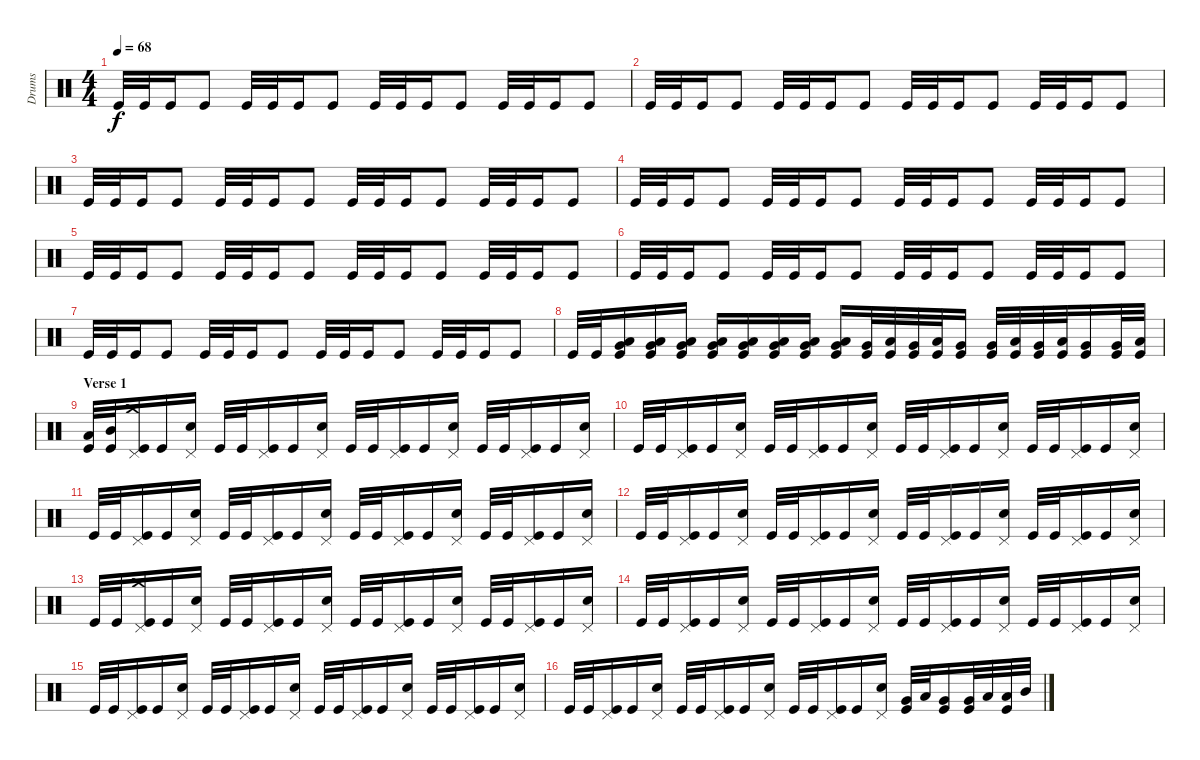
\track ("Drums" "Drums") {instrument percussion}
\staff {score}
\articulation defaults
\ts (4 4)
\tempo 68
\clef neutral
\ks c "Kick (hit)".32{dy f} "Kick (hit)".32 "Kick (hit)".16 "Kick (hit)".8 "Kick (hit)".32 "Kick (hit)".32 "Kick (hit)".16 "Kick (hit)".8 "Kick (hit)".32 "Kick (hit)".32 "Kick (hit)".16 "Kick (hit)".8 "Kick (hit)".32 "Kick (hit)".32 "Kick (hit)".16 "Kick (hit)".8
|
"Kick (hit)".32 "Kick (hit)".32 "Kick (hit)".16 "Kick (hit)".8 "Kick (hit)".32 "Kick (hit)".32 "Kick (hit)".16 "Kick (hit)".8 "Kick (hit)".32 "Kick (hit)".32 "Kick (hit)".16 "Kick (hit)".8 "Kick (hit)".32 "Kick (hit)".32 "Kick (hit)".16 "Kick (hit)".8 |
"Kick (hit)".32 "Kick (hit)".32 "Kick (hit)".16 "Kick (hit)".8 "Kick (hit)".32 "Kick (hit)".32 "Kick (hit)".16 "Kick (hit)".8 "Kick (hit)".32 "Kick (hit)".32 "Kick (hit)".16 "Kick (hit)".8 "Kick (hit)".32 "Kick (hit)".32 "Kick (hit)".16 "Kick (hit)".8 |
"Kick (hit)".32 "Kick (hit)".32 "Kick (hit)".16 "Kick (hit)".8 "Kick (hit)".32 "Kick (hit)".32 "Kick (hit)".16 "Kick (hit)".8 "Kick (hit)".32 "Kick (hit)".32 "Kick (hit)".16 "Kick (hit)".8 "Kick (hit)".32 "Kick (hit)".32 "Kick (hit)".16 "Kick (hit)".8 |
"Kick (hit)".32 "Kick (hit)".32 "Kick (hit)".16 "Kick (hit)".8 "Kick (hit)".32 "Kick (hit)".32 "Kick (hit)".16 "Kick (hit)".8 "Kick (hit)".32 "Kick (hit)".32 "Kick (hit)".16 "Kick (hit)".8 "Kick (hit)".32 "Kick (hit)".32 "Kick (hit)".16 "Kick (hit)".8 |
"Kick (hit)".32 "Kick (hit)".32 "Kick (hit)".16 "Kick (hit)".8 "Kick (hit)".32 "Kick (hit)".32 "Kick (hit)".16 "Kick (hit)".8 "Kick (hit)".32 "Kick (hit)".32 "Kick (hit)".16 "Kick (hit)".8 "Kick (hit)".32 "Kick (hit)".32 "Kick (hit)".16 "Kick (hit)".8 |
"Kick (hit)".32 "Kick (hit)".32 "Kick (hit)".16 "Kick (hit)".8 "Kick (hit)".32 "Kick (hit)".32 "Kick (hit)".16 "Kick (hit)".8 "Kick (hit)".32 "Kick (hit)".32 "Kick (hit)".16 "Kick (hit)".8 "Kick (hit)".32 "Kick (hit)".32 "Kick (hit)".16 "Kick (hit)".8 |
"Kick (hit)".32 "Kick (hit)".32 ("Low Tom (hit)" "Very Low Tom (hit)" "Kick (hit)").16 ("Low Tom (hit)" "Very Low Tom (hit)" "Kick (hit)").16 ("Low Tom (hit)" "Very Low Tom (hit)" "Kick (hit)").16 ("Low Tom (hit)" "Very Low Tom (hit)" "Kick (hit)").16 ("Low Tom (hit)" "Very Low Tom (hit)" "Kick (hit)").16 ("Low Tom (hit)" "Very Low Tom (hit)" "Kick (hit)").16 ("Low Tom (hit)" "Very Low Tom (hit)" "Kick (hit)").16 ("Low Tom (hit)" "Very Low Tom (hit)" "Kick (hit)").16 ("Very Low Tom (hit)" "Kick (hit)").32 ("Low Tom (hit)" "Kick (hit)").32 ("Very Low Tom (hit)" "Kick (hit)").32 ("Low Tom (hit)" "Kick (hit)").32 ("Very Low Tom (hit)" "Kick (hit)").16 ("Very Low Tom (hit)" "Kick (hit)").32 ("Low Tom (hit)" "Kick (hit)").32 ("Very Low Tom (hit)" "Kick (hit)").32 ("Low Tom (hit)" "Kick (hit)").32 ("Very Low Tom (hit)" "Kick (hit)").16 ("Very Low Tom (hit)" "Kick (hit)").32 ("Low Tom (hit)" "Kick (hit)").32 |
\section ("" "Verse 1")
("Low Tom (hit)" "Kick (hit)").32 ("Mid Tom (hit)" "Kick (hit)").32 ("Crash medium (hit)" "Pedal Hi-Hat (hit)" "Kick (hit)").16 "Kick (hit)".16 ("Pedal Hi-Hat (hit)" "Snare (hit) 2").16 "Kick (hit)".32 "Kick (hit)".32 ("Pedal Hi-Hat (hit)" "Kick (hit)").16 "Kick (hit)".16 ("Pedal Hi-Hat (hit)" "Snare (hit) 2").16 "Kick (hit)".32 "Kick (hit)".32 ("Pedal Hi-Hat (hit)" "Kick (hit)").16 "Kick (hit)".16 ("Pedal Hi-Hat (hit)" "Snare (hit) 2").16 "Kick (hit)".32 "Kick (hit)".32 ("Pedal Hi-Hat (hit)" "Kick (hit)").16 "Kick (hit)".16 ("Pedal Hi-Hat (hit)" "Snare (hit) 2").16 |
"Kick (hit)".32 "Kick (hit)".32 ("Pedal Hi-Hat (hit)" "Kick (hit)").16 "Kick (hit)".16 ("Pedal Hi-Hat (hit)" "Snare (hit) 2").16 "Kick (hit)".32 "Kick (hit)".32 ("Pedal Hi-Hat (hit)" "Kick (hit)").16 "Kick (hit)".16 ("Pedal Hi-Hat (hit)" "Snare (hit) 2").16 "Kick (hit)".32 "Kick (hit)".32 ("Pedal Hi-Hat (hit)" "Kick (hit)").16 "Kick (hit)".16 ("Pedal Hi-Hat (hit)" "Snare (hit) 2").16 "Kick (hit)".32 "Kick (hit)".32 ("Pedal Hi-Hat (hit)" "Kick (hit)").16 "Kick (hit)".16 ("Pedal Hi-Hat (hit)" "Snare (hit) 2").16 |
"Kick (hit)".32 "Kick (hit)".32 ("Pedal Hi-Hat (hit)" "Kick (hit)").16 "Kick (hit)".16 ("Pedal Hi-Hat (hit)" "Snare (hit) 2").16 "Kick (hit)".32 "Kick (hit)".32 ("Pedal Hi-Hat (hit)" "Kick (hit)").16 "Kick (hit)".16 ("Pedal Hi-Hat (hit)" "Snare (hit) 2").16 "Kick (hit)".32 "Kick (hit)".32 ("Pedal Hi-Hat (hit)" "Kick (hit)").16 "Kick (hit)".16 ("Pedal Hi-Hat (hit)" "Snare (hit) 2").16 "Kick (hit)".32 "Kick (hit)".32 ("Pedal Hi-Hat (hit)" "Kick (hit)").16 "Kick (hit)".16 ("Pedal Hi-Hat (hit)" "Snare (hit) 2").16 |
"Kick (hit)".32 "Kick (hit)".32 ("Pedal Hi-Hat (hit)" "Kick (hit)").16 "Kick (hit)".16 ("Pedal Hi-Hat (hit)" "Snare (hit) 2").16 "Kick (hit)".32 "Kick (hit)".32 ("Pedal Hi-Hat (hit)" "Kick (hit)").16 "Kick (hit)".16 ("Pedal Hi-Hat (hit)" "Snare (hit) 2").16 "Kick (hit)".32 "Kick (hit)".32 ("Pedal Hi-Hat (hit)" "Kick (hit)").16 "Kick (hit)".16 ("Pedal Hi-Hat (hit)" "Snare (hit) 2").16 "Kick (hit)".32 "Kick (hit)".32 ("Pedal Hi-Hat (hit)" "Kick (hit)").16 "Kick (hit)".16 ("Pedal Hi-Hat (hit)" "Snare (hit) 2").16 |
"Kick (hit)".32 "Kick (hit)".32 ("Crash medium (hit)" "Pedal Hi-Hat (hit)" "Kick (hit)").16 "Kick (hit)".16 ("Pedal Hi-Hat (hit)" "Snare (hit) 2").16 "Kick (hit)".32 "Kick (hit)".32 ("Pedal Hi-Hat (hit)" "Kick (hit)").16 "Kick (hit)".16 ("Pedal Hi-Hat (hit)" "Snare (hit) 2").16 "Kick (hit)".32 "Kick (hit)".32 ("Pedal Hi-Hat (hit)" "Kick (hit)").16 "Kick (hit)".16 ("Pedal Hi-Hat (hit)" "Snare (hit) 2").16 "Kick (hit)".32 "Kick (hit)".32 ("Pedal Hi-Hat (hit)" "Kick (hit)").16 "Kick (hit)".16 ("Pedal Hi-Hat (hit)" "Snare (hit) 2").16 |
"Kick (hit)".32 "Kick (hit)".32 ("Pedal Hi-Hat (hit)" "Kick (hit)").16 "Kick (hit)".16 ("Pedal Hi-Hat (hit)" "Snare (hit) 2").16 "Kick (hit)".32 "Kick (hit)".32 ("Pedal Hi-Hat (hit)" "Kick (hit)").16 "Kick (hit)".16 ("Pedal Hi-Hat (hit)" "Snare (hit) 2").16 "Kick (hit)".32 "Kick (hit)".32 ("Pedal Hi-Hat (hit)" "Kick (hit)").16 "Kick (hit)".16 ("Pedal Hi-Hat (hit)" "Snare (hit) 2").16 "Kick (hit)".32 "Kick (hit)".32 ("Pedal Hi-Hat (hit)" "Kick (hit)").16 "Kick (hit)".16 ("Pedal Hi-Hat (hit)" "Snare (hit) 2").16 |
"Kick (hit)".32 "Kick (hit)".32 ("Pedal Hi-Hat (hit)" "Kick (hit)").16 "Kick (hit)".16 ("Pedal Hi-Hat (hit)" "Snare (hit) 2").16 "Kick (hit)".32 "Kick (hit)".32 ("Pedal Hi-Hat (hit)" "Kick (hit)").16 "Kick (hit)".16 ("Pedal Hi-Hat (hit)" "Snare (hit) 2").16 "Kick (hit)".32 "Kick (hit)".32 ("Pedal Hi-Hat (hit)" "Kick (hit)").16 "Kick (hit)".16 ("Pedal Hi-Hat (hit)" "Snare (hit) 2").16 "Kick (hit)".32 "Kick (hit)".32 ("Pedal Hi-Hat (hit)" "Kick (hit)").16 "Kick (hit)".16 ("Pedal Hi-Hat (hit)" "Snare (hit) 2").16 |
"Kick (hit)".32 "Kick (hit)".32 ("Pedal Hi-Hat (hit)" "Kick (hit)").16 "Kick (hit)".16 ("Pedal Hi-Hat (hit)" "Snare (hit) 2").16 "Kick (hit)".32 "Kick (hit)".32 ("Pedal Hi-Hat (hit)" "Kick (hit)").16 "Kick (hit)".16 ("Pedal Hi-Hat (hit)" "Snare (hit) 2").16 "Kick (hit)".32 "Kick (hit)".32 ("Pedal Hi-Hat (hit)" "Kick (hit)").16 "Kick (hit)".16 ("Pedal Hi-Hat (hit)" "Snare (hit) 2").16 ("Very Low Tom (hit)" "Kick (hit)").32 "Low Tom (hit)".32 ("Very Low Tom (hit)" "Kick (hit)").16 ("Very Low Tom (hit)" "Kick (hit)").32 "Low Tom (hit)".32 ("Low Tom (hit)" "Kick (hit)").32 "Mid Tom (hit)".32
